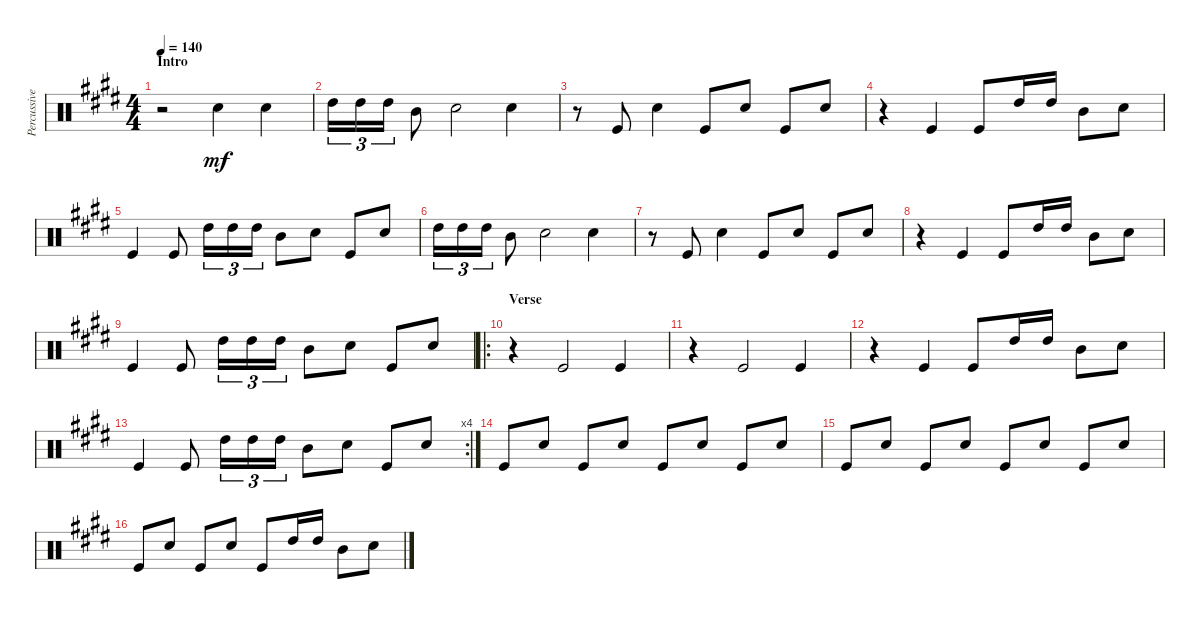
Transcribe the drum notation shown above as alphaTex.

\track ("Percussives" "Percussive") {instrument percussion}
\staff {score}
\articulation defaults
\ts (4 4)
\section ("" "Intro")
\tempo 140
\clef neutral
\ks e
r.2{dy mf} "Snare (hit) 2".4 "Snare (hit) 2".4 |
"High Tom (hit)".16{tu (3 2)} "High Tom (hit)".16{tu (3 2)} "High Tom (hit)".16{tu (3 2)} "Mid Tom (hit)".8 "Snare (hit) 2".2 "Snare (hit) 2".4 |
r.8 "Kick (hit)".8 "Snare (hit) 2".4 "Kick (hit)".8 "Snare (hit) 2".8 "Kick (hit)".8 "Snare (hit) 2".8 |
r.4 "Kick (hit)".4 "Kick (hit)".8 "High Tom (hit)".16 "High Tom (hit)".16 "Mid Tom (hit)".8 "Snare (hit) 2".8 |
"Kick (hit)".4 "Kick (hit)".8 "High Tom (hit)".16{tu (3 2)} "High Tom (hit)".16{tu (3 2)} "High Tom (hit)".16{tu (3 2)} "Mid Tom (hit)".8 "Snare (hit) 2".8 "Kick (hit)".8 "Snare (hit) 2".8 |
"High Tom (hit)".16{tu (3 2)} "High Tom (hit)".16{tu (3 2)} "High Tom (hit)".16{tu (3 2)} "Mid Tom (hit)".8 "Snare (hit) 2".2 "Snare (hit) 2".4 |
r.8 "Kick (hit)".8 "Snare (hit) 2".4 "Kick (hit)".8 "Snare (hit) 2".8 "Kick (hit)".8 "Snare (hit) 2".8 |
r.4 "Kick (hit)".4 "Kick (hit)".8 "High Tom (hit)".16 "High Tom (hit)".16 "Mid Tom (hit)".8 "Snare (hit) 2".8 |
"Kick (hit)".4 "Kick (hit)".8 "High Tom (hit)".16{tu (3 2)} "High Tom (hit)".16{tu (3 2)} "High Tom (hit)".16{tu (3 2)} "Mid Tom (hit)".8 "Snare (hit) 2".8 "Kick (hit)".8 "Snare (hit) 2".8 |
\ro
\section ("" "Verse")
r.4 "Kick (hit)".2 "Kick (hit)".4 |
r.4 "Kick (hit)".2 "Kick (hit)".4 |
r.4 "Kick (hit)".4 "Kick (hit)".8 "High Tom (hit)".16 "High Tom (hit)".16 "Mid Tom (hit)".8 "Snare (hit) 2".8 |
\rc 4 "Kick (hit)".4 "Kick (hit)".8 "High Tom (hit)".16{tu (3 2)} "High Tom (hit)".16{tu (3 2)} "High Tom (hit)".16{tu (3 2)} "Mid Tom (hit)".8 "Snare (hit) 2".8 "Kick (hit)".8 "Snare (hit) 2".8
|
"Kick (hit)".8 "Snare (hit) 2".8 "Kick (hit)".8 "Snare (hit) 2".8 "Kick (hit)".8 "Snare (hit) 2".8 "Kick (hit)".8 "Snare (hit) 2".8 |
"Kick (hit)".8 "Snare (hit) 2".8 "Kick (hit)".8 "Snare (hit) 2".8 "Kick (hit)".8 "Snare (hit) 2".8 "Kick (hit)".8 "Snare (hit) 2".8 |
"Kick (hit)".8 "Snare (hit) 2".8 "Kick (hit)".8 "Snare (hit) 2".8 "Kick (hit)".8 "High Tom (hit)".16 "High Tom (hit)".16 "Mid Tom (hit)".8 "Snare (hit) 2".8
